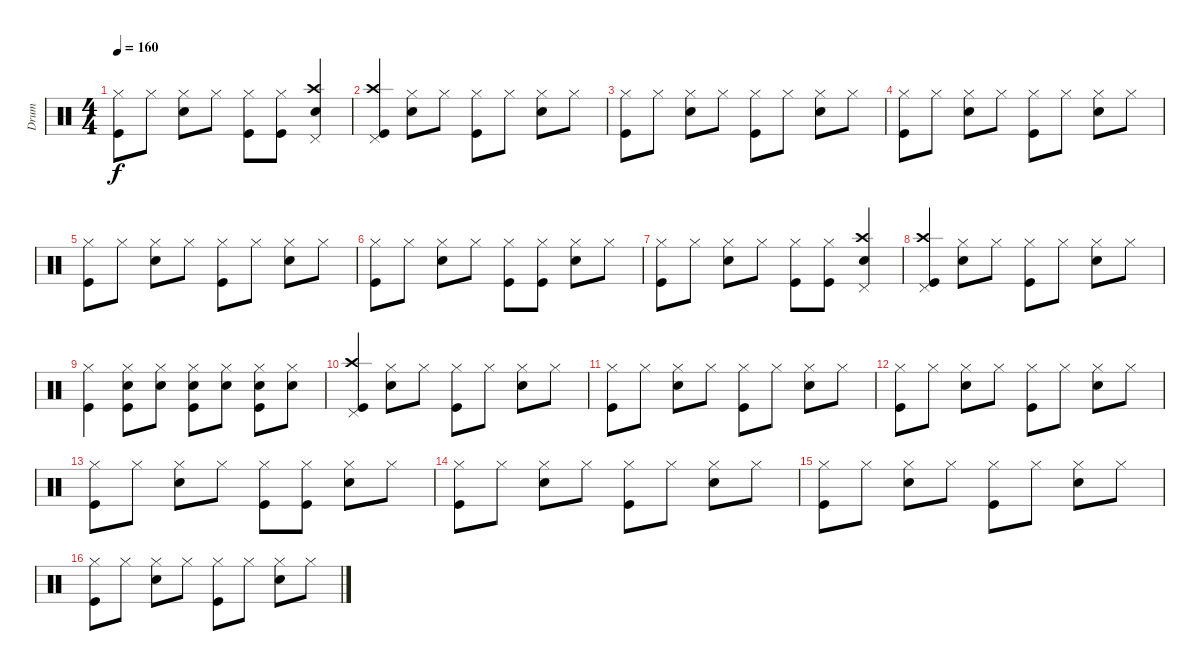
\track ("Drum" "Drum") {instrument percussion}
\staff {score}
\articulation defaults
\ts (4 4)
\tempo 160
\clef neutral
\ks c
("Hi-Hat (closed)" "Kick (hit)").8{dy f} "Hi-Hat (closed)".8 ("Hi-Hat (closed)" "Snare (hit) 2").8 "Hi-Hat (closed)".8 ("Hi-Hat (closed)" "Kick (hit)").8 ("Hi-Hat (closed)" "Kick (hit)").8 ("Crash high (hit)" "Pedal Hi-Hat (hit)" "Snare (hit) 2").4 |
("Crash high (hit)" "Pedal Hi-Hat (hit)" "Kick (hit)").4 ("Hi-Hat (closed)" "Snare (hit) 2").8 "Hi-Hat (closed)".8 ("Hi-Hat (closed)" "Kick (hit)").8 "Hi-Hat (closed)".8 ("Hi-Hat (closed)" "Snare (hit) 2").8 "Hi-Hat (closed)".8 |
("Hi-Hat (closed)" "Kick (hit)").8 "Hi-Hat (closed)".8 ("Hi-Hat (closed)" "Snare (hit) 2").8 "Hi-Hat (closed)".8 ("Hi-Hat (closed)" "Kick (hit)").8 "Hi-Hat (closed)".8 ("Hi-Hat (closed)" "Snare (hit) 2").8 "Hi-Hat (closed)".8 |
("Hi-Hat (closed)" "Kick (hit)").8 "Hi-Hat (closed)".8 ("Hi-Hat (closed)" "Snare (hit) 2").8 "Hi-Hat (closed)".8 ("Hi-Hat (closed)" "Kick (hit)").8 "Hi-Hat (closed)".8 ("Hi-Hat (closed)" "Snare (hit) 2").8 "Hi-Hat (closed)".8 |
("Hi-Hat (closed)" "Kick (hit)").8 "Hi-Hat (closed)".8 ("Hi-Hat (closed)" "Snare (hit) 2").8 "Hi-Hat (closed)".8 ("Hi-Hat (closed)" "Kick (hit)").8 "Hi-Hat (closed)".8 ("Hi-Hat (closed)" "Snare (hit) 2").8 "Hi-Hat (closed)".8 |
("Hi-Hat (closed)" "Kick (hit)").8 "Hi-Hat (closed)".8 ("Hi-Hat (closed)" "Snare (hit) 2").8 "Hi-Hat (closed)".8 ("Hi-Hat (closed)" "Kick (hit)").8 ("Hi-Hat (closed)" "Kick (hit)").8 ("Hi-Hat (closed)" "Snare (hit) 2").8 "Hi-Hat (closed)".8 |
("Hi-Hat (closed)" "Kick (hit)").8 "Hi-Hat (closed)".8 ("Hi-Hat (closed)" "Snare (hit) 2").8 "Hi-Hat (closed)".8 ("Hi-Hat (closed)" "Kick (hit)").8 ("Hi-Hat (closed)" "Kick (hit)").8 ("Crash high (hit)" "Pedal Hi-Hat (hit)" "Snare (hit) 2").4 |
("Crash high (hit)" "Pedal Hi-Hat (hit)" "Kick (hit)").4 ("Hi-Hat (closed)" "Snare (hit) 2").8 "Hi-Hat (closed)".8 ("Hi-Hat (closed)" "Kick (hit)").8 "Hi-Hat (closed)".8 ("Hi-Hat (closed)" "Snare (hit) 2").8 "Hi-Hat (closed)".8 |
("Hi-Hat (closed)" "Kick (hit)").4 ("Hi-Hat (closed)" "Snare (hit) 2" "Kick (hit)").8 ("Hi-Hat (closed)" "Snare (hit) 2").8 ("Hi-Hat (closed)" "Snare (hit) 2" "Kick (hit)").8 ("Hi-Hat (closed)" "Snare (hit) 2").8 ("Hi-Hat (closed)" "Snare (hit) 2" "Kick (hit)").8 ("Hi-Hat (closed)" "Snare (hit) 2").8 |
("Crash high (hit)" "Pedal Hi-Hat (hit)" "Kick (hit)").4 ("Hi-Hat (closed)" "Snare (hit) 2").8 "Hi-Hat (closed)".8 ("Hi-Hat (closed)" "Kick (hit)").8 "Hi-Hat (closed)".8 ("Hi-Hat (closed)" "Snare (hit) 2").8 "Hi-Hat (closed)".8 |
("Hi-Hat (closed)" "Kick (hit)").8 "Hi-Hat (closed)".8 ("Hi-Hat (closed)" "Snare (hit) 2").8 "Hi-Hat (closed)".8 ("Hi-Hat (closed)" "Kick (hit)").8 "Hi-Hat (closed)".8 ("Hi-Hat (closed)" "Snare (hit) 2").8 "Hi-Hat (closed)".8 |
("Hi-Hat (closed)" "Kick (hit)").8 "Hi-Hat (closed)".8 ("Hi-Hat (closed)" "Snare (hit) 2").8 "Hi-Hat (closed)".8 ("Hi-Hat (closed)" "Kick (hit)").8 "Hi-Hat (closed)".8 ("Hi-Hat (closed)" "Snare (hit) 2").8 "Hi-Hat (closed)".8 |
("Hi-Hat (closed)" "Kick (hit)").8 "Hi-Hat (closed)".8 ("Hi-Hat (closed)" "Snare (hit) 2").8 "Hi-Hat (closed)".8 ("Hi-Hat (closed)" "Kick (hit)").8 ("Hi-Hat (closed)" "Kick (hit)").8 ("Hi-Hat (closed)" "Snare (hit) 2").8 "Hi-Hat (closed)".8 |
("Hi-Hat (closed)" "Kick (hit)").8 "Hi-Hat (closed)".8 ("Hi-Hat (closed)" "Snare (hit) 2").8 "Hi-Hat (closed)".8 ("Hi-Hat (closed)" "Kick (hit)").8 "Hi-Hat (closed)".8 ("Hi-Hat (closed)" "Snare (hit) 2").8 "Hi-Hat (closed)".8 |
("Hi-Hat (closed)" "Kick (hit)").8 "Hi-Hat (closed)".8 ("Hi-Hat (closed)" "Snare (hit) 2").8 "Hi-Hat (closed)".8 ("Hi-Hat (closed)" "Kick (hit)").8 "Hi-Hat (closed)".8 ("Hi-Hat (closed)" "Snare (hit) 2").8 "Hi-Hat (closed)".8 |
("Hi-Hat (closed)" "Kick (hit)").8 "Hi-Hat (closed)".8 ("Hi-Hat (closed)" "Snare (hit) 2").8 "Hi-Hat (closed)".8 ("Hi-Hat (closed)" "Kick (hit)").8 "Hi-Hat (closed)".8 ("Hi-Hat (closed)" "Snare (hit) 2").8 "Hi-Hat (closed)".8
